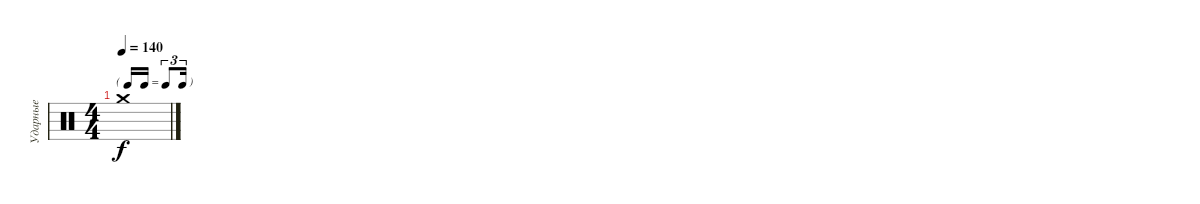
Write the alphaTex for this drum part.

\track ("Ударные" "Ударные") {instrument percussion}
\staff {score}
\articulation defaults
\ts (4 4)
\tf triplet16th
\tempo 140
\clef neutral
\ks c "Crash medium (hit)".1{dy f}
